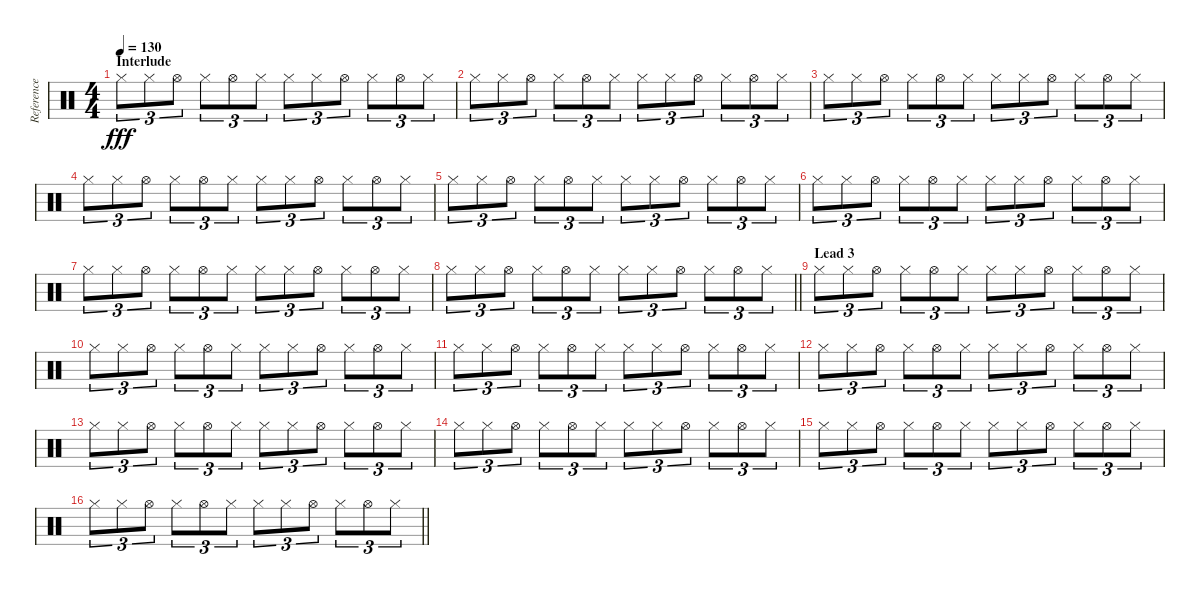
\track ("Reference metronome" "Reference ") {instrument percussion}
\staff {score}
\articulation defaults
\ts (4 4)
\section ("" "Interlude")
\tempo 130
\clef neutral
\ks c "Hi-Hat (closed)".8{tu (3 2) dy fff} "Hi-Hat (closed)".8{tu (3 2)} "Hi-Hat (open)".8{tu (3 2)} "Hi-Hat (closed)".8{tu (3 2)} "Hi-Hat (open)".8{tu (3 2)} "Hi-Hat (closed)".8{tu (3 2)} "Hi-Hat (closed)".8{tu (3 2)} "Hi-Hat (closed)".8{tu (3 2)} "Hi-Hat (open)".8{tu (3 2)} "Hi-Hat (closed)".8{tu (3 2)} "Hi-Hat (open)".8{tu (3 2)} "Hi-Hat (closed)".8{tu (3 2)}
|
"Hi-Hat (closed)".8{tu (3 2)} "Hi-Hat (closed)".8{tu (3 2)} "Hi-Hat (open)".8{tu (3 2)} "Hi-Hat (closed)".8{tu (3 2)} "Hi-Hat (open)".8{tu (3 2)} "Hi-Hat (closed)".8{tu (3 2)} "Hi-Hat (closed)".8{tu (3 2)} "Hi-Hat (closed)".8{tu (3 2)} "Hi-Hat (open)".8{tu (3 2)} "Hi-Hat (closed)".8{tu (3 2)} "Hi-Hat (open)".8{tu (3 2)} "Hi-Hat (closed)".8{tu (3 2)} |
"Hi-Hat (closed)".8{tu (3 2)} "Hi-Hat (closed)".8{tu (3 2)} "Hi-Hat (open)".8{tu (3 2)} "Hi-Hat (closed)".8{tu (3 2)} "Hi-Hat (open)".8{tu (3 2)} "Hi-Hat (closed)".8{tu (3 2)} "Hi-Hat (closed)".8{tu (3 2)} "Hi-Hat (closed)".8{tu (3 2)} "Hi-Hat (open)".8{tu (3 2)} "Hi-Hat (closed)".8{tu (3 2)} "Hi-Hat (open)".8{tu (3 2)} "Hi-Hat (closed)".8{tu (3 2)} |
"Hi-Hat (closed)".8{tu (3 2)} "Hi-Hat (closed)".8{tu (3 2)} "Hi-Hat (open)".8{tu (3 2)} "Hi-Hat (closed)".8{tu (3 2)} "Hi-Hat (open)".8{tu (3 2)} "Hi-Hat (closed)".8{tu (3 2)} "Hi-Hat (closed)".8{tu (3 2)} "Hi-Hat (closed)".8{tu (3 2)} "Hi-Hat (open)".8{tu (3 2)} "Hi-Hat (closed)".8{tu (3 2)} "Hi-Hat (open)".8{tu (3 2)} "Hi-Hat (closed)".8{tu (3 2)} |
"Hi-Hat (closed)".8{tu (3 2)} "Hi-Hat (closed)".8{tu (3 2)} "Hi-Hat (open)".8{tu (3 2)} "Hi-Hat (closed)".8{tu (3 2)} "Hi-Hat (open)".8{tu (3 2)} "Hi-Hat (closed)".8{tu (3 2)} "Hi-Hat (closed)".8{tu (3 2)} "Hi-Hat (closed)".8{tu (3 2)} "Hi-Hat (open)".8{tu (3 2)} "Hi-Hat (closed)".8{tu (3 2)} "Hi-Hat (open)".8{tu (3 2)} "Hi-Hat (closed)".8{tu (3 2)} |
"Hi-Hat (closed)".8{tu (3 2)} "Hi-Hat (closed)".8{tu (3 2)} "Hi-Hat (open)".8{tu (3 2)} "Hi-Hat (closed)".8{tu (3 2)} "Hi-Hat (open)".8{tu (3 2)} "Hi-Hat (closed)".8{tu (3 2)} "Hi-Hat (closed)".8{tu (3 2)} "Hi-Hat (closed)".8{tu (3 2)} "Hi-Hat (open)".8{tu (3 2)} "Hi-Hat (closed)".8{tu (3 2)} "Hi-Hat (open)".8{tu (3 2)} "Hi-Hat (closed)".8{tu (3 2)} |
"Hi-Hat (closed)".8{tu (3 2)} "Hi-Hat (closed)".8{tu (3 2)} "Hi-Hat (open)".8{tu (3 2)} "Hi-Hat (closed)".8{tu (3 2)} "Hi-Hat (open)".8{tu (3 2)} "Hi-Hat (closed)".8{tu (3 2)} "Hi-Hat (closed)".8{tu (3 2)} "Hi-Hat (closed)".8{tu (3 2)} "Hi-Hat (open)".8{tu (3 2)} "Hi-Hat (closed)".8{tu (3 2)} "Hi-Hat (open)".8{tu (3 2)} "Hi-Hat (closed)".8{tu (3 2)} |
\barLineRight lightlight "Hi-Hat (closed)".8{tu (3 2)} "Hi-Hat (closed)".8{tu (3 2)} "Hi-Hat (open)".8{tu (3 2)} "Hi-Hat (closed)".8{tu (3 2)} "Hi-Hat (open)".8{tu (3 2)} "Hi-Hat (closed)".8{tu (3 2)} "Hi-Hat (closed)".8{tu (3 2)} "Hi-Hat (closed)".8{tu (3 2)} "Hi-Hat (open)".8{tu (3 2)} "Hi-Hat (closed)".8{tu (3 2)} "Hi-Hat (open)".8{tu (3 2)} "Hi-Hat (closed)".8{tu (3 2)}
|
\section ("" "Lead 3")
"Hi-Hat (closed)".8{tu (3 2)} "Hi-Hat (closed)".8{tu (3 2)} "Hi-Hat (open)".8{tu (3 2)} "Hi-Hat (closed)".8{tu (3 2)} "Hi-Hat (open)".8{tu (3 2)} "Hi-Hat (closed)".8{tu (3 2)} "Hi-Hat (closed)".8{tu (3 2)} "Hi-Hat (closed)".8{tu (3 2)} "Hi-Hat (open)".8{tu (3 2)} "Hi-Hat (closed)".8{tu (3 2)} "Hi-Hat (open)".8{tu (3 2)} "Hi-Hat (closed)".8{tu (3 2)} |
"Hi-Hat (closed)".8{tu (3 2)} "Hi-Hat (closed)".8{tu (3 2)} "Hi-Hat (open)".8{tu (3 2)} "Hi-Hat (closed)".8{tu (3 2)} "Hi-Hat (open)".8{tu (3 2)} "Hi-Hat (closed)".8{tu (3 2)} "Hi-Hat (closed)".8{tu (3 2)} "Hi-Hat (closed)".8{tu (3 2)} "Hi-Hat (open)".8{tu (3 2)} "Hi-Hat (closed)".8{tu (3 2)} "Hi-Hat (open)".8{tu (3 2)} "Hi-Hat (closed)".8{tu (3 2)} |
"Hi-Hat (closed)".8{tu (3 2)} "Hi-Hat (closed)".8{tu (3 2)} "Hi-Hat (open)".8{tu (3 2)} "Hi-Hat (closed)".8{tu (3 2)} "Hi-Hat (open)".8{tu (3 2)} "Hi-Hat (closed)".8{tu (3 2)} "Hi-Hat (closed)".8{tu (3 2)} "Hi-Hat (closed)".8{tu (3 2)} "Hi-Hat (open)".8{tu (3 2)} "Hi-Hat (closed)".8{tu (3 2)} "Hi-Hat (open)".8{tu (3 2)} "Hi-Hat (closed)".8{tu (3 2)} |
"Hi-Hat (closed)".8{tu (3 2)} "Hi-Hat (closed)".8{tu (3 2)} "Hi-Hat (open)".8{tu (3 2)} "Hi-Hat (closed)".8{tu (3 2)} "Hi-Hat (open)".8{tu (3 2)} "Hi-Hat (closed)".8{tu (3 2)} "Hi-Hat (closed)".8{tu (3 2)} "Hi-Hat (closed)".8{tu (3 2)} "Hi-Hat (open)".8{tu (3 2)} "Hi-Hat (closed)".8{tu (3 2)} "Hi-Hat (open)".8{tu (3 2)} "Hi-Hat (closed)".8{tu (3 2)} |
"Hi-Hat (closed)".8{tu (3 2)} "Hi-Hat (closed)".8{tu (3 2)} "Hi-Hat (open)".8{tu (3 2)} "Hi-Hat (closed)".8{tu (3 2)} "Hi-Hat (open)".8{tu (3 2)} "Hi-Hat (closed)".8{tu (3 2)} "Hi-Hat (closed)".8{tu (3 2)} "Hi-Hat (closed)".8{tu (3 2)} "Hi-Hat (open)".8{tu (3 2)} "Hi-Hat (closed)".8{tu (3 2)} "Hi-Hat (open)".8{tu (3 2)} "Hi-Hat (closed)".8{tu (3 2)} |
"Hi-Hat (closed)".8{tu (3 2)} "Hi-Hat (closed)".8{tu (3 2)} "Hi-Hat (open)".8{tu (3 2)} "Hi-Hat (closed)".8{tu (3 2)} "Hi-Hat (open)".8{tu (3 2)} "Hi-Hat (closed)".8{tu (3 2)} "Hi-Hat (closed)".8{tu (3 2)} "Hi-Hat (closed)".8{tu (3 2)} "Hi-Hat (open)".8{tu (3 2)} "Hi-Hat (closed)".8{tu (3 2)} "Hi-Hat (open)".8{tu (3 2)} "Hi-Hat (closed)".8{tu (3 2)} |
"Hi-Hat (closed)".8{tu (3 2)} "Hi-Hat (closed)".8{tu (3 2)} "Hi-Hat (open)".8{tu (3 2)} "Hi-Hat (closed)".8{tu (3 2)} "Hi-Hat (open)".8{tu (3 2)} "Hi-Hat (closed)".8{tu (3 2)} "Hi-Hat (closed)".8{tu (3 2)} "Hi-Hat (closed)".8{tu (3 2)} "Hi-Hat (open)".8{tu (3 2)} "Hi-Hat (closed)".8{tu (3 2)} "Hi-Hat (open)".8{tu (3 2)} "Hi-Hat (closed)".8{tu (3 2)} |
\barLineRight lightlight "Hi-Hat (closed)".8{tu (3 2)} "Hi-Hat (closed)".8{tu (3 2)} "Hi-Hat (open)".8{tu (3 2)} "Hi-Hat (closed)".8{tu (3 2)} "Hi-Hat (open)".8{tu (3 2)} "Hi-Hat (closed)".8{tu (3 2)} "Hi-Hat (closed)".8{tu (3 2)} "Hi-Hat (closed)".8{tu (3 2)} "Hi-Hat (open)".8{tu (3 2)} "Hi-Hat (closed)".8{tu (3 2)} "Hi-Hat (open)".8{tu (3 2)} "Hi-Hat (closed)".8{tu (3 2)}
